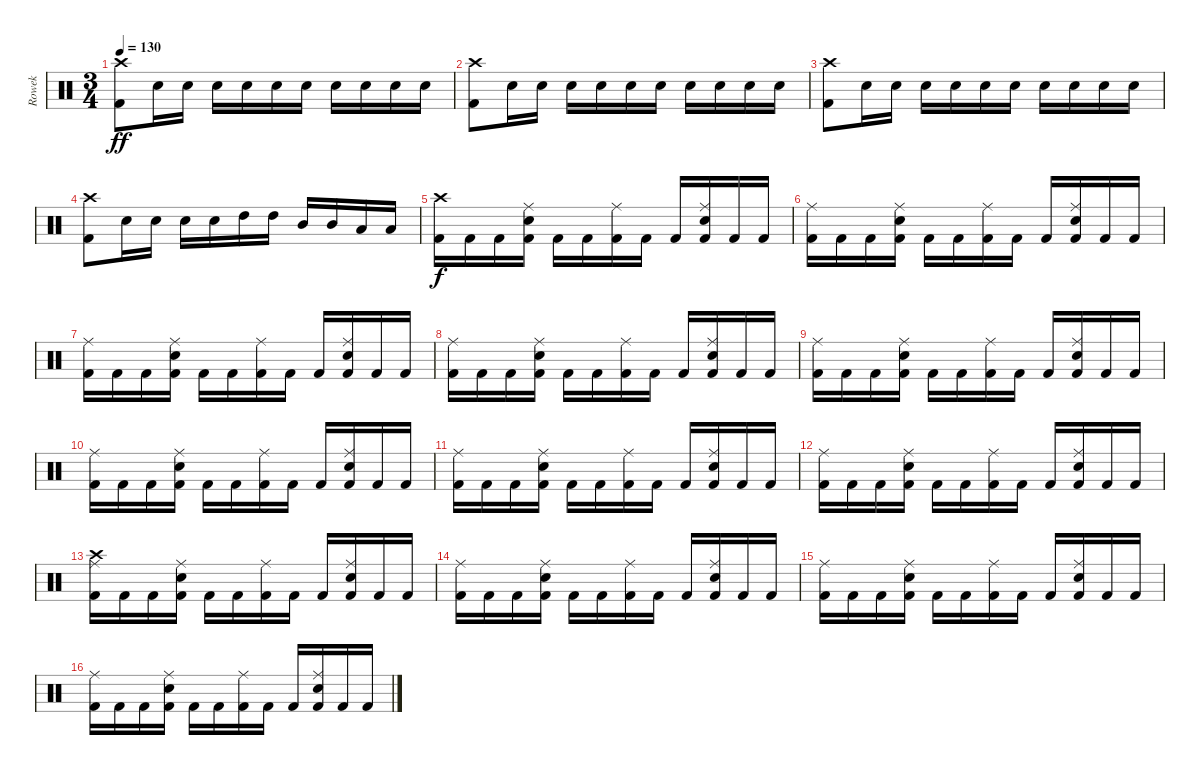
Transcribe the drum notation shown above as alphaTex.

\track ("Rowek" "Rowek") {instrument percussion}
\staff {score}
\articulation defaults
\ts (3 4)
\tempo 130
\clef neutral
\ks c
("Kick (hit) 2" "Crash high (hit)").8{dy ff} "Electric Snare (hit)".16 "Electric Snare (hit)".16 "Electric Snare (hit)".16 "Electric Snare (hit)".16 "Electric Snare (hit)".16 "Electric Snare (hit)".16 "Electric Snare (hit)".16 "Electric Snare (hit)".16 "Electric Snare (hit)".16 "Electric Snare (hit)".16 |
("Kick (hit) 2" "Crash high (hit)").8 "Electric Snare (hit)".16 "Electric Snare (hit)".16 "Electric Snare (hit)".16 "Electric Snare (hit)".16 "Electric Snare (hit)".16 "Electric Snare (hit)".16 "Electric Snare (hit)".16 "Electric Snare (hit)".16 "Electric Snare (hit)".16 "Electric Snare (hit)".16 |
("Kick (hit) 2" "Crash high (hit)").8 "Electric Snare (hit)".16 "Electric Snare (hit)".16 "Electric Snare (hit)".16 "Electric Snare (hit)".16 "Electric Snare (hit)".16 "Electric Snare (hit)".16 "Electric Snare (hit)".16 "Electric Snare (hit)".16 "Electric Snare (hit)".16 "Electric Snare (hit)".16 |
("Kick (hit) 2" "Crash high (hit)").8 "Electric Snare (hit)".16 "Electric Snare (hit)".16 "Electric Snare (hit)".16 "Electric Snare (hit)".16 "High Tom (hit)".16 "High Tom (hit)".16 "Mid Tom (hit)".16 "Mid Tom (hit)".16 "Low Tom (hit)".16 "Low Tom (hit)".16 |
("Crash high (hit)" "Kick (hit) 2").16{dy f} "Kick (hit) 2".16 "Kick (hit) 2".16 ("Ride (middle)" "Snare (hit) 2" "Kick (hit) 2").16 "Kick (hit) 2".16 "Kick (hit) 2".16 ("Ride (middle)" "Kick (hit) 2").16 "Kick (hit) 2".16 "Kick (hit) 2".16 ("Ride (middle)" "Snare (hit) 2" "Kick (hit) 2").16 "Kick (hit) 2".16 "Kick (hit) 2".16 |
("Ride (middle)" "Kick (hit) 2").16 "Kick (hit) 2".16 "Kick (hit) 2".16 ("Ride (middle)" "Snare (hit) 2" "Kick (hit) 2").16 "Kick (hit) 2".16 "Kick (hit) 2".16 ("Ride (middle)" "Kick (hit) 2").16 "Kick (hit) 2".16 "Kick (hit) 2".16 ("Ride (middle)" "Snare (hit) 2" "Kick (hit) 2").16 "Kick (hit) 2".16 "Kick (hit) 2".16 |
("Ride (middle)" "Kick (hit) 2").16 "Kick (hit) 2".16 "Kick (hit) 2".16 ("Ride (middle)" "Snare (hit) 2" "Kick (hit) 2").16 "Kick (hit) 2".16 "Kick (hit) 2".16 ("Ride (middle)" "Kick (hit) 2").16 "Kick (hit) 2".16 "Kick (hit) 2".16 ("Ride (middle)" "Snare (hit) 2" "Kick (hit) 2").16 "Kick (hit) 2".16 "Kick (hit) 2".16 |
("Ride (middle)" "Kick (hit) 2").16 "Kick (hit) 2".16 "Kick (hit) 2".16 ("Ride (middle)" "Snare (hit) 2" "Kick (hit) 2").16 "Kick (hit) 2".16 "Kick (hit) 2".16 ("Ride (middle)" "Kick (hit) 2").16 "Kick (hit) 2".16 "Kick (hit) 2".16 ("Ride (middle)" "Snare (hit) 2" "Kick (hit) 2").16 "Kick (hit) 2".16 "Kick (hit) 2".16 |
("Ride (middle)" "Kick (hit) 2").16 "Kick (hit) 2".16 "Kick (hit) 2".16 ("Ride (middle)" "Snare (hit) 2" "Kick (hit) 2").16 "Kick (hit) 2".16 "Kick (hit) 2".16 ("Ride (middle)" "Kick (hit) 2").16 "Kick (hit) 2".16 "Kick (hit) 2".16 ("Ride (middle)" "Snare (hit) 2" "Kick (hit) 2").16 "Kick (hit) 2".16 "Kick (hit) 2".16 |
("Ride (middle)" "Kick (hit) 2").16 "Kick (hit) 2".16 "Kick (hit) 2".16 ("Ride (middle)" "Snare (hit) 2" "Kick (hit) 2").16 "Kick (hit) 2".16 "Kick (hit) 2".16 ("Ride (middle)" "Kick (hit) 2").16 "Kick (hit) 2".16 "Kick (hit) 2".16 ("Ride (middle)" "Snare (hit) 2" "Kick (hit) 2").16 "Kick (hit) 2".16 "Kick (hit) 2".16 |
("Ride (middle)" "Kick (hit) 2").16 "Kick (hit) 2".16 "Kick (hit) 2".16 ("Ride (middle)" "Snare (hit) 2" "Kick (hit) 2").16 "Kick (hit) 2".16 "Kick (hit) 2".16 ("Ride (middle)" "Kick (hit) 2").16 "Kick (hit) 2".16 "Kick (hit) 2".16 ("Ride (middle)" "Snare (hit) 2" "Kick (hit) 2").16 "Kick (hit) 2".16 "Kick (hit) 2".16 |
("Ride (middle)" "Kick (hit) 2").16 "Kick (hit) 2".16 "Kick (hit) 2".16 ("Ride (middle)" "Snare (hit) 2" "Kick (hit) 2").16 "Kick (hit) 2".16 "Kick (hit) 2".16 ("Ride (middle)" "Kick (hit) 2").16 "Kick (hit) 2".16 "Kick (hit) 2".16 ("Ride (middle)" "Snare (hit) 2" "Kick (hit) 2").16 "Kick (hit) 2".16 "Kick (hit) 2".16 |
("Ride (middle)" "Crash high (hit)" "Kick (hit) 2").16 "Kick (hit) 2".16 "Kick (hit) 2".16 ("Ride (middle)" "Snare (hit) 2" "Kick (hit) 2").16 "Kick (hit) 2".16 "Kick (hit) 2".16 ("Ride (middle)" "Kick (hit) 2").16 "Kick (hit) 2".16 "Kick (hit) 2".16 ("Ride (middle)" "Snare (hit) 2" "Kick (hit) 2").16 "Kick (hit) 2".16 "Kick (hit) 2".16 |
("Ride (middle)" "Kick (hit) 2").16 "Kick (hit) 2".16 "Kick (hit) 2".16 ("Ride (middle)" "Snare (hit) 2" "Kick (hit) 2").16 "Kick (hit) 2".16 "Kick (hit) 2".16 ("Ride (middle)" "Kick (hit) 2").16 "Kick (hit) 2".16 "Kick (hit) 2".16 ("Ride (middle)" "Snare (hit) 2" "Kick (hit) 2").16 "Kick (hit) 2".16 "Kick (hit) 2".16 |
("Ride (middle)" "Kick (hit) 2").16 "Kick (hit) 2".16 "Kick (hit) 2".16 ("Ride (middle)" "Snare (hit) 2" "Kick (hit) 2").16 "Kick (hit) 2".16 "Kick (hit) 2".16 ("Ride (middle)" "Kick (hit) 2").16 "Kick (hit) 2".16 "Kick (hit) 2".16 ("Ride (middle)" "Snare (hit) 2" "Kick (hit) 2").16 "Kick (hit) 2".16 "Kick (hit) 2".16 |
("Ride (middle)" "Kick (hit) 2").16 "Kick (hit) 2".16 "Kick (hit) 2".16 ("Ride (middle)" "Snare (hit) 2" "Kick (hit) 2").16 "Kick (hit) 2".16 "Kick (hit) 2".16 ("Ride (middle)" "Kick (hit) 2").16 "Kick (hit) 2".16 "Kick (hit) 2".16 ("Ride (middle)" "Snare (hit) 2" "Kick (hit) 2").16 "Kick (hit) 2".16 "Kick (hit) 2".16
